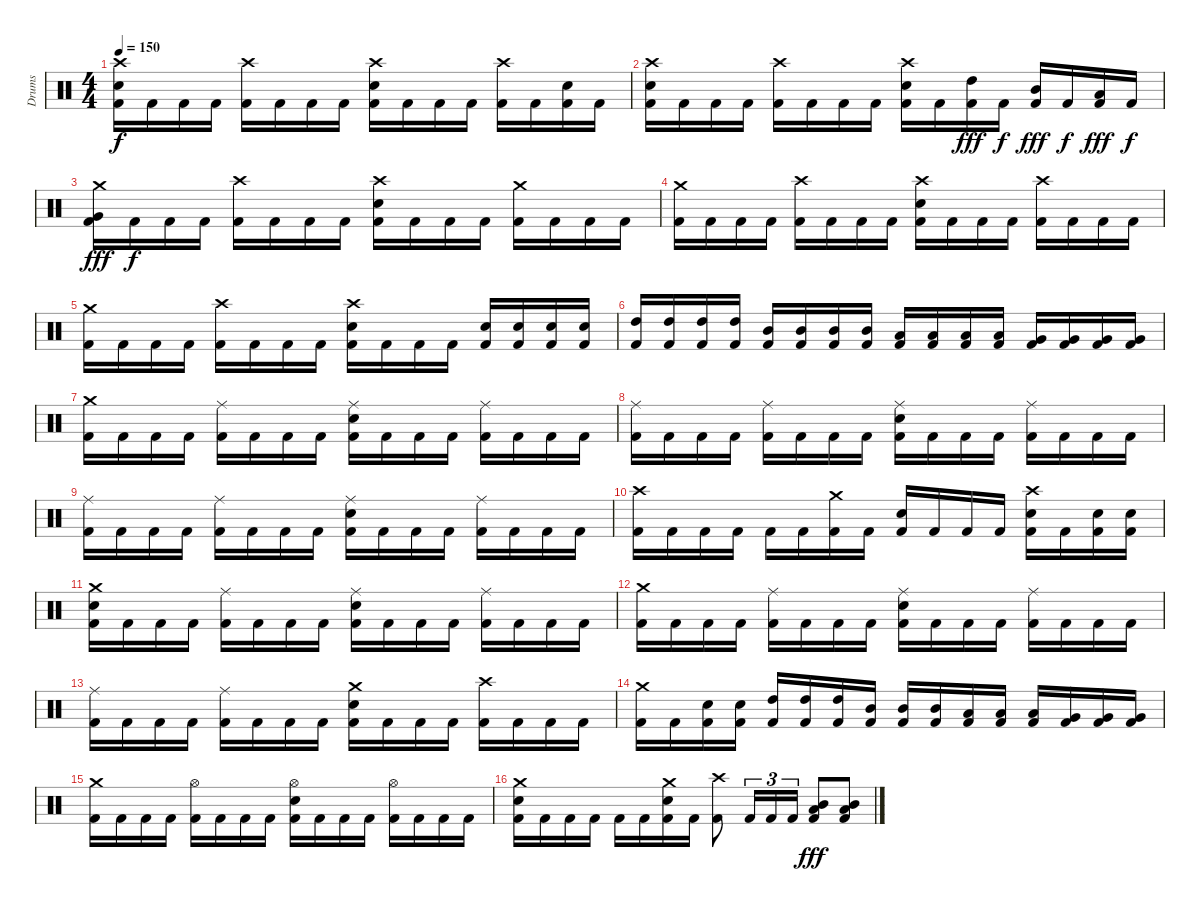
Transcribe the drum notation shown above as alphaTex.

\track ("Drums" "Drums") {instrument percussion}
\staff {score}
\articulation defaults
\ts (4 4)
\tempo 150
\clef neutral
\ks c
("Kick (hit) 2" "Electric Snare (hit)" "Crash high (hit)").16{dy f} "Kick (hit) 2".16 "Kick (hit) 2".16 "Kick (hit) 2".16 ("Kick (hit) 2" "Crash high (hit)").16 "Kick (hit) 2".16 "Kick (hit) 2".16 "Kick (hit) 2".16 ("Kick (hit) 2" "Electric Snare (hit)" "Crash high (hit)").16 "Kick (hit) 2".16 "Kick (hit) 2".16 "Kick (hit) 2".16 ("Kick (hit) 2" "Crash high (hit)").16 "Kick (hit) 2".16 ("Kick (hit) 2" "Electric Snare (hit)").16 "Kick (hit) 2".16 |
("Kick (hit) 2" "Electric Snare (hit)" "Crash high (hit)").16 "Kick (hit) 2".16 "Kick (hit) 2".16 "Kick (hit) 2".16 ("Kick (hit) 2" "Crash high (hit)").16 "Kick (hit) 2".16 "Kick (hit) 2".16 "Kick (hit) 2".16 ("Kick (hit) 2" "Electric Snare (hit)" "Crash high (hit)").16 "Kick (hit) 2".16 ("Kick (hit) 2" "High Tom (hit)").16{dy fff} "Kick (hit) 2".16{dy f} ("Kick (hit) 2" "Mid Tom (hit)").16{dy fff} "Kick (hit) 2".16{dy f} ("Kick (hit) 2" "Low Tom (hit)").16{dy fff} "Kick (hit) 2".16{dy f} |
("Kick (hit) 2" "Very Low Tom (hit)" "Crash medium (hit)").16{dy fff} "Kick (hit) 2".16{dy f} "Kick (hit) 2".16 "Kick (hit) 2".16 ("Kick (hit) 2" "Crash high (hit)").16 "Kick (hit) 2".16 "Kick (hit) 2".16 "Kick (hit) 2".16 ("Kick (hit) 2" "Electric Snare (hit)" "Crash high (hit)").16 "Kick (hit) 2".16 "Kick (hit) 2".16 "Kick (hit) 2".16 ("Kick (hit) 2" "Crash medium (hit)").16 "Kick (hit) 2".16 "Kick (hit) 2".16 "Kick (hit) 2".16 |
("Kick (hit) 2" "Crash medium (hit)").16 "Kick (hit) 2".16 "Kick (hit) 2".16 "Kick (hit) 2".16 ("Kick (hit) 2" "Crash high (hit)").16 "Kick (hit) 2".16 "Kick (hit) 2".16 "Kick (hit) 2".16 ("Kick (hit) 2" "Electric Snare (hit)" "Crash high (hit)").16 "Kick (hit) 2".16 "Kick (hit) 2".16 "Kick (hit) 2".16 ("Kick (hit) 2" "Crash high (hit)").16 "Kick (hit) 2".16 "Kick (hit) 2".16 "Kick (hit) 2".16 |
("Kick (hit) 2" "Crash medium (hit)").16 "Kick (hit) 2".16 "Kick (hit) 2".16 "Kick (hit) 2".16 ("Kick (hit) 2" "Crash high (hit)").16 "Kick (hit) 2".16 "Kick (hit) 2".16 "Kick (hit) 2".16 ("Kick (hit) 2" "Electric Snare (hit)" "Crash high (hit)").16 "Kick (hit) 2".16 "Kick (hit) 2".16 "Kick (hit) 2".16 ("Kick (hit) 2" "Electric Snare (hit)").16 ("Kick (hit) 2" "Electric Snare (hit)").16 ("Kick (hit) 2" "Electric Snare (hit)").16 ("Kick (hit) 2" "Electric Snare (hit)").16 |
("Kick (hit) 2" "High Tom (hit)").16 ("Kick (hit) 2" "High Tom (hit)").16 ("Kick (hit) 2" "High Tom (hit)").16 ("Kick (hit) 2" "High Tom (hit)").16 ("Kick (hit) 2" "Mid Tom (hit)").16 ("Kick (hit) 2" "Mid Tom (hit)").16 ("Kick (hit) 2" "Mid Tom (hit)").16 ("Kick (hit) 2" "Mid Tom (hit)").16 ("Kick (hit) 2" "Low Tom (hit)").16 ("Kick (hit) 2" "Low Tom (hit)").16 ("Kick (hit) 2" "Low Tom (hit)").16 ("Kick (hit) 2" "Low Tom (hit)").16 ("Kick (hit) 2" "Very Low Tom (hit)").16 ("Kick (hit) 2" "Very Low Tom (hit)").16 ("Kick (hit) 2" "Very Low Tom (hit)").16 ("Kick (hit) 2" "Very Low Tom (hit)").16 |
("Kick (hit) 2" "Crash medium (hit)").16 "Kick (hit) 2".16 "Kick (hit) 2".16 "Kick (hit) 2".16 ("Kick (hit) 2" "Ride (middle)").16 "Kick (hit) 2".16 "Kick (hit) 2".16 "Kick (hit) 2".16 ("Kick (hit) 2" "Electric Snare (hit)" "Ride (middle)").16 "Kick (hit) 2".16 "Kick (hit) 2".16 "Kick (hit) 2".16 ("Kick (hit) 2" "Ride (middle)").16 "Kick (hit) 2".16 "Kick (hit) 2".16 "Kick (hit) 2".16 |
("Kick (hit) 2" "Ride (middle)").16 "Kick (hit) 2".16 "Kick (hit) 2".16 "Kick (hit) 2".16 ("Kick (hit) 2" "Ride (middle)").16 "Kick (hit) 2".16 "Kick (hit) 2".16 "Kick (hit) 2".16 ("Kick (hit) 2" "Electric Snare (hit)" "Ride (middle)").16 "Kick (hit) 2".16 "Kick (hit) 2".16 "Kick (hit) 2".16 ("Kick (hit) 2" "Ride (middle)").16 "Kick (hit) 2".16 "Kick (hit) 2".16 "Kick (hit) 2".16 |
("Kick (hit) 2" "Ride (middle)").16 "Kick (hit) 2".16 "Kick (hit) 2".16 "Kick (hit) 2".16 ("Kick (hit) 2" "Ride (middle)").16 "Kick (hit) 2".16 "Kick (hit) 2".16 "Kick (hit) 2".16 ("Kick (hit) 2" "Electric Snare (hit)" "Ride (middle)").16 "Kick (hit) 2".16 "Kick (hit) 2".16 "Kick (hit) 2".16 ("Kick (hit) 2" "Ride (middle)").16 "Kick (hit) 2".16 "Kick (hit) 2".16 "Kick (hit) 2".16 |
("Kick (hit) 2" "Crash high (hit)").16 "Kick (hit) 2".16 "Kick (hit) 2".16 "Kick (hit) 2".16 "Kick (hit) 2".16 "Kick (hit) 2".16 ("Kick (hit) 2" "Crash medium (hit)").16 "Kick (hit) 2".16 ("Kick (hit) 2" "Electric Snare (hit)").16 "Kick (hit) 2".16 "Kick (hit) 2".16 "Kick (hit) 2".16 ("Kick (hit) 2" "Electric Snare (hit)" "Crash high (hit)").16 "Kick (hit) 2".16 ("Kick (hit) 2" "Electric Snare (hit)").16 ("Kick (hit) 2" "Electric Snare (hit)").16 |
("Kick (hit) 2" "Electric Snare (hit)" "Crash medium (hit)").16 "Kick (hit) 2".16 "Kick (hit) 2".16 "Kick (hit) 2".16 ("Kick (hit) 2" "Ride (middle)").16 "Kick (hit) 2".16 "Kick (hit) 2".16 "Kick (hit) 2".16 ("Kick (hit) 2" "Electric Snare (hit)" "Ride (middle)").16 "Kick (hit) 2".16 "Kick (hit) 2".16 "Kick (hit) 2".16 ("Kick (hit) 2" "Ride (middle)").16 "Kick (hit) 2".16 "Kick (hit) 2".16 "Kick (hit) 2".16 |
("Kick (hit) 2" "Crash medium (hit)").16 "Kick (hit) 2".16 "Kick (hit) 2".16 "Kick (hit) 2".16 ("Kick (hit) 2" "Ride (middle)").16 "Kick (hit) 2".16 "Kick (hit) 2".16 "Kick (hit) 2".16 ("Kick (hit) 2" "Electric Snare (hit)" "Ride (middle)").16 "Kick (hit) 2".16 "Kick (hit) 2".16 "Kick (hit) 2".16 ("Kick (hit) 2" "Ride (middle)").16 "Kick (hit) 2".16 "Kick (hit) 2".16 "Kick (hit) 2".16 |
("Kick (hit) 2" "Ride (middle)").16 "Kick (hit) 2".16 "Kick (hit) 2".16 "Kick (hit) 2".16 ("Kick (hit) 2" "Ride (middle)").16 "Kick (hit) 2".16 "Kick (hit) 2".16 "Kick (hit) 2".16 ("Kick (hit) 2" "Electric Snare (hit)" "Crash medium (hit)").16 "Kick (hit) 2".16 "Kick (hit) 2".16 "Kick (hit) 2".16 ("Kick (hit) 2" "Crash high (hit)").16 "Kick (hit) 2".16 "Kick (hit) 2".16 "Kick (hit) 2".16 |
("Kick (hit) 2" "Crash medium (hit)").16 "Kick (hit) 2".16 ("Kick (hit) 2" "Electric Snare (hit)").16 ("Kick (hit) 2" "Electric Snare (hit)").16 ("Kick (hit) 2" "High Tom (hit)").16 ("Kick (hit) 2" "High Tom (hit)").16 ("Kick (hit) 2" "High Tom (hit)").16 ("Kick (hit) 2" "Mid Tom (hit)").16 ("Kick (hit) 2" "Mid Tom (hit)").16 ("Kick (hit) 2" "Mid Tom (hit)").16 ("Kick (hit) 2" "Low Tom (hit)").16 ("Kick (hit) 2" "Low Tom (hit)").16 ("Kick (hit) 2" "Low Tom (hit)").16 ("Kick (hit) 2" "Very Low Tom (hit)").16 ("Kick (hit) 2" "Very Low Tom (hit)").16 ("Kick (hit) 2" "Very Low Tom (hit)").16 |
("Kick (hit) 2" "Crash medium (hit)").16 "Kick (hit) 2".16 "Kick (hit) 2".16 "Kick (hit) 2".16 ("Kick (hit) 2" "Hi-Hat (open)").16 "Kick (hit) 2".16 "Kick (hit) 2".16 "Kick (hit) 2".16 ("Kick (hit) 2" "Electric Snare (hit)" "Hi-Hat (open)").16 "Kick (hit) 2".16 "Kick (hit) 2".16 "Kick (hit) 2".16 ("Kick (hit) 2" "Hi-Hat (open)").16 "Kick (hit) 2".16 "Kick (hit) 2".16 "Kick (hit) 2".16 |
("Kick (hit) 2" "Electric Snare (hit)" "Crash medium (hit)").16 "Kick (hit) 2".16 "Kick (hit) 2".16 "Kick (hit) 2".16 "Kick (hit) 2".16 "Kick (hit) 2".16 ("Kick (hit) 2" "Electric Snare (hit)" "Crash medium (hit)").16 "Kick (hit) 2".16 ("Kick (hit) 2" "Crash high (hit)").8 "Kick (hit) 2".16{tu (3 2)} "Kick (hit) 2".16{tu (3 2)} "Kick (hit) 2".16{tu (3 2)} ("Kick (hit) 2" "Mid Tom (hit)" "Low Tom (hit)").8{dy fff} ("Kick (hit) 2" "Mid Tom (hit)" "Low Tom (hit)").8
